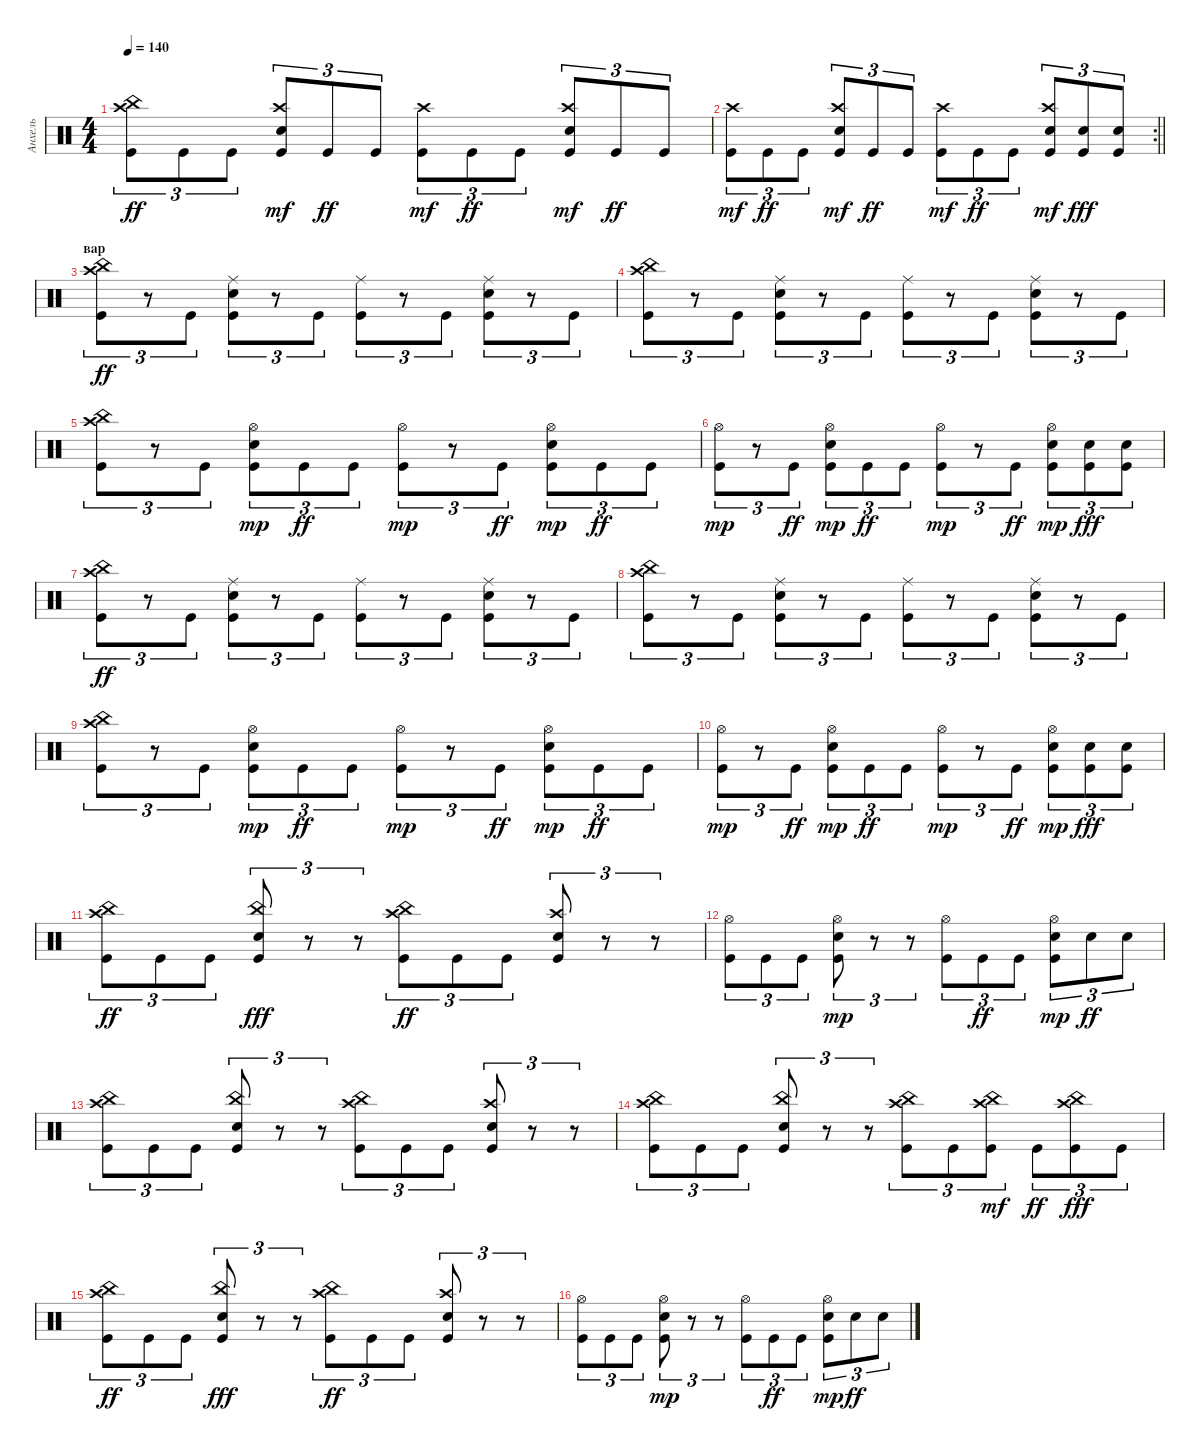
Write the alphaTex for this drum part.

\track ("Анхель" "Анхель") {instrument percussion}
\staff {score}
\articulation defaults
\ts (4 4)
\tempo 140
\clef neutral
\ks c
("Kick (hit)" "China (hit)" "Crash high (hit)").8{tu (3 2) dy ff} "Kick (hit)".8{tu (3 2)} "Kick (hit)".8{tu (3 2)} ("Kick (hit)" "Snare (hit) 2" "Crash high (hit)").8{tu (3 2) dy mf} "Kick (hit)".8{tu (3 2) dy ff} "Kick (hit)".8{tu (3 2)} ("Kick (hit)" "Crash high (hit)").8{tu (3 2) dy mf} "Kick (hit)".8{tu (3 2) dy ff} "Kick (hit)".8{tu (3 2)} ("Kick (hit)" "Snare (hit) 2" "Crash high (hit)").8{tu (3 2) dy mf} "Kick (hit)".8{tu (3 2) dy ff} "Kick (hit)".8{tu (3 2)} |
\rc 2
\barLineRight lightlight
("Kick (hit)" "Crash high (hit)").8{tu (3 2) dy mf} "Kick (hit)".8{tu (3 2) dy ff} "Kick (hit)".8{tu (3 2)} ("Kick (hit)" "Snare (hit) 2" "Crash high (hit)").8{tu (3 2) dy mf} "Kick (hit)".8{tu (3 2) dy ff} "Kick (hit)".8{tu (3 2)} ("Kick (hit)" "Crash high (hit)").8{tu (3 2) dy mf} "Kick (hit)".8{tu (3 2) dy ff} "Kick (hit)".8{tu (3 2)} ("Kick (hit)" "Snare (hit) 2" "Crash high (hit)").8{tu (3 2) dy mf} ("Kick (hit)" "Snare (hit) 2").8{tu (3 2) dy fff} ("Kick (hit)" "Snare (hit) 2").8{tu (3 2)} |
\section ("" "вар")
("Kick (hit)" "China (hit)" "Crash high (hit)").8{tu (3 2) dy ff} r.8{tu (3 2)} "Kick (hit)".8{tu (3 2)} ("Kick (hit)" "Snare (hit) 2" "Ride (middle)").8{tu (3 2)} r.8{tu (3 2)} "Kick (hit)".8{tu (3 2)} ("Kick (hit)" "Ride (middle)").8{tu (3 2)} r.8{tu (3 2)} "Kick (hit)".8{tu (3 2)} ("Kick (hit)" "Snare (hit) 2" "Ride (middle)").8{tu (3 2)} r.8{tu (3 2)} "Kick (hit)".8{tu (3 2)} |
("Kick (hit)" "China (hit)" "Crash high (hit)").8{tu (3 2)} r.8{tu (3 2)} "Kick (hit)".8{tu (3 2)} ("Kick (hit)" "Snare (hit) 2" "Ride (middle)").8{tu (3 2)} r.8{tu (3 2)} "Kick (hit)".8{tu (3 2)} ("Kick (hit)" "Ride (middle)").8{tu (3 2)} r.8{tu (3 2)} "Kick (hit)".8{tu (3 2)} ("Kick (hit)" "Snare (hit) 2" "Ride (middle)").8{tu (3 2)} r.8{tu (3 2)} "Kick (hit)".8{tu (3 2)} |
("Kick (hit)" "China (hit)" "Crash high (hit)").8{tu (3 2)} r.8{tu (3 2)} "Kick (hit)".8{tu (3 2)} ("Kick (hit)" "Snare (hit) 2" "Hi-Hat (open)").8{tu (3 2) dy mp} "Kick (hit)".8{tu (3 2) dy ff} "Kick (hit)".8{tu (3 2)} ("Kick (hit)" "Hi-Hat (open)").8{tu (3 2) dy mp} r.8{tu (3 2)} "Kick (hit)".8{tu (3 2) dy ff} ("Kick (hit)" "Snare (hit) 2" "Hi-Hat (open)").8{tu (3 2) dy mp} "Kick (hit)".8{tu (3 2) dy ff} "Kick (hit)".8{tu (3 2)} |
("Kick (hit)" "Hi-Hat (open)").8{tu (3 2) dy mp} r.8{tu (3 2)} "Kick (hit)".8{tu (3 2) dy ff} ("Kick (hit)" "Snare (hit) 2" "Hi-Hat (open)").8{tu (3 2) dy mp} "Kick (hit)".8{tu (3 2) dy ff} "Kick (hit)".8{tu (3 2)} ("Kick (hit)" "Hi-Hat (open)").8{tu (3 2) dy mp} r.8{tu (3 2)} "Kick (hit)".8{tu (3 2) dy ff} ("Kick (hit)" "Snare (hit) 2" "Hi-Hat (open)").8{tu (3 2) dy mp} ("Kick (hit)" "Snare (hit) 2").8{tu (3 2) dy fff} ("Kick (hit)" "Snare (hit) 2").8{tu (3 2)} |
("Kick (hit)" "China (hit)" "Crash high (hit)").8{tu (3 2) dy ff} r.8{tu (3 2)} "Kick (hit)".8{tu (3 2)} ("Kick (hit)" "Snare (hit) 2" "Ride (middle)").8{tu (3 2)} r.8{tu (3 2)} "Kick (hit)".8{tu (3 2)} ("Kick (hit)" "Ride (middle)").8{tu (3 2)} r.8{tu (3 2)} "Kick (hit)".8{tu (3 2)} ("Kick (hit)" "Snare (hit) 2" "Ride (middle)").8{tu (3 2)} r.8{tu (3 2)} "Kick (hit)".8{tu (3 2)} |
("Kick (hit)" "China (hit)" "Crash high (hit)").8{tu (3 2)} r.8{tu (3 2)} "Kick (hit)".8{tu (3 2)} ("Kick (hit)" "Snare (hit) 2" "Ride (middle)").8{tu (3 2)} r.8{tu (3 2)} "Kick (hit)".8{tu (3 2)} ("Kick (hit)" "Ride (middle)").8{tu (3 2)} r.8{tu (3 2)} "Kick (hit)".8{tu (3 2)} ("Kick (hit)" "Snare (hit) 2" "Ride (middle)").8{tu (3 2)} r.8{tu (3 2)} "Kick (hit)".8{tu (3 2)} |
("Kick (hit)" "China (hit)" "Crash high (hit)").8{tu (3 2)} r.8{tu (3 2)} "Kick (hit)".8{tu (3 2)} ("Kick (hit)" "Snare (hit) 2" "Hi-Hat (open)").8{tu (3 2) dy mp} "Kick (hit)".8{tu (3 2) dy ff} "Kick (hit)".8{tu (3 2)} ("Kick (hit)" "Hi-Hat (open)").8{tu (3 2) dy mp} r.8{tu (3 2)} "Kick (hit)".8{tu (3 2) dy ff} ("Kick (hit)" "Snare (hit) 2" "Hi-Hat (open)").8{tu (3 2) dy mp} "Kick (hit)".8{tu (3 2) dy ff} "Kick (hit)".8{tu (3 2)} |
("Kick (hit)" "Hi-Hat (open)").8{tu (3 2) dy mp} r.8{tu (3 2)} "Kick (hit)".8{tu (3 2) dy ff} ("Kick (hit)" "Snare (hit) 2" "Hi-Hat (open)").8{tu (3 2) dy mp} "Kick (hit)".8{tu (3 2) dy ff} "Kick (hit)".8{tu (3 2)} ("Kick (hit)" "Hi-Hat (open)").8{tu (3 2) dy mp} r.8{tu (3 2)} "Kick (hit)".8{tu (3 2) dy ff} ("Kick (hit)" "Snare (hit) 2" "Hi-Hat (open)").8{tu (3 2) dy mp} ("Kick (hit)" "Snare (hit) 2").8{tu (3 2) dy fff} ("Kick (hit)" "Snare (hit) 2").8{tu (3 2)} |
("Kick (hit)" "China (hit)" "Crash high (hit)").8{tu (3 2) dy ff} "Kick (hit)".8{tu (3 2)} "Kick (hit)".8{tu (3 2)} ("Kick (hit)" "Snare (hit) 2" "China (hit)").8{tu (3 2) dy fff} r.8{tu (3 2)} r.8{tu (3 2)} ("Kick (hit)" "China (hit)" "Crash high (hit)").8{tu (3 2) dy ff} "Kick (hit)".8{tu (3 2)} "Kick (hit)".8{tu (3 2)} ("Kick (hit)" "Snare (hit) 2" "Crash high (hit)").8{tu (3 2)} r.8{tu (3 2)} r.8{tu (3 2)} |
("Kick (hit)" "Hi-Hat (open)").8{tu (3 2)} "Kick (hit)".8{tu (3 2)} "Kick (hit)".8{tu (3 2)} ("Kick (hit)" "Snare (hit) 2" "Hi-Hat (open)").8{tu (3 2) dy mp} r.8{tu (3 2)} r.8{tu (3 2)} ("Kick (hit)" "Hi-Hat (open)").8{tu (3 2)} "Kick (hit)".8{tu (3 2) dy ff} "Kick (hit)".8{tu (3 2)} ("Kick (hit)" "Snare (hit) 2" "Hi-Hat (open)").8{tu (3 2) dy mp} "Snare (hit) 2".8{tu (3 2) dy ff} "Snare (hit) 2".8{tu (3 2)} |
("Kick (hit)" "China (hit)" "Crash high (hit)").8{tu (3 2)} "Kick (hit)".8{tu (3 2)} "Kick (hit)".8{tu (3 2)} ("Kick (hit)" "Snare (hit) 2" "China (hit)").8{tu (3 2)} r.8{tu (3 2)} r.8{tu (3 2)} ("Kick (hit)" "China (hit)" "Crash high (hit)").8{tu (3 2)} "Kick (hit)".8{tu (3 2)} "Kick (hit)".8{tu (3 2)} ("Kick (hit)" "Snare (hit) 2" "Crash high (hit)").8{tu (3 2)} r.8{tu (3 2)} r.8{tu (3 2)} |
("Kick (hit)" "China (hit)" "Crash high (hit)").8{tu (3 2)} "Kick (hit)".8{tu (3 2)} "Kick (hit)".8{tu (3 2)} ("Kick (hit)" "Snare (hit) 2" "China (hit)").8{tu (3 2)} r.8{tu (3 2)} r.8{tu (3 2)} ("Kick (hit)" "China (hit)" "Crash high (hit)").8{tu (3 2)} "Kick (hit)".8{tu (3 2)} ("Kick (hit)" "Crash high (hit)" "China (hit)").8{tu (3 2) dy mf} "Kick (hit)".8{tu (3 2) dy ff} ("Kick (hit)" "China (hit)" "Crash high (hit)").8{tu (3 2) dy fff} "Kick (hit)".8{tu (3 2)} |
("Kick (hit)" "China (hit)" "Crash high (hit)").8{tu (3 2) dy ff} "Kick (hit)".8{tu (3 2)} "Kick (hit)".8{tu (3 2)} ("Kick (hit)" "Snare (hit) 2" "China (hit)").8{tu (3 2) dy fff} r.8{tu (3 2)} r.8{tu (3 2)} ("Kick (hit)" "China (hit)" "Crash high (hit)").8{tu (3 2) dy ff} "Kick (hit)".8{tu (3 2)} "Kick (hit)".8{tu (3 2)} ("Kick (hit)" "Snare (hit) 2" "Crash high (hit)").8{tu (3 2)} r.8{tu (3 2)} r.8{tu (3 2)} |
("Kick (hit)" "Hi-Hat (open)").8{tu (3 2)} "Kick (hit)".8{tu (3 2)} "Kick (hit)".8{tu (3 2)} ("Kick (hit)" "Snare (hit) 2" "Hi-Hat (open)").8{tu (3 2) dy mp} r.8{tu (3 2)} r.8{tu (3 2)} ("Kick (hit)" "Hi-Hat (open)").8{tu (3 2)} "Kick (hit)".8{tu (3 2) dy ff} "Kick (hit)".8{tu (3 2)} ("Kick (hit)" "Snare (hit) 2" "Hi-Hat (open)").8{tu (3 2) dy mp} "Snare (hit) 2".8{tu (3 2) dy ff} "Snare (hit) 2".8{tu (3 2)}
